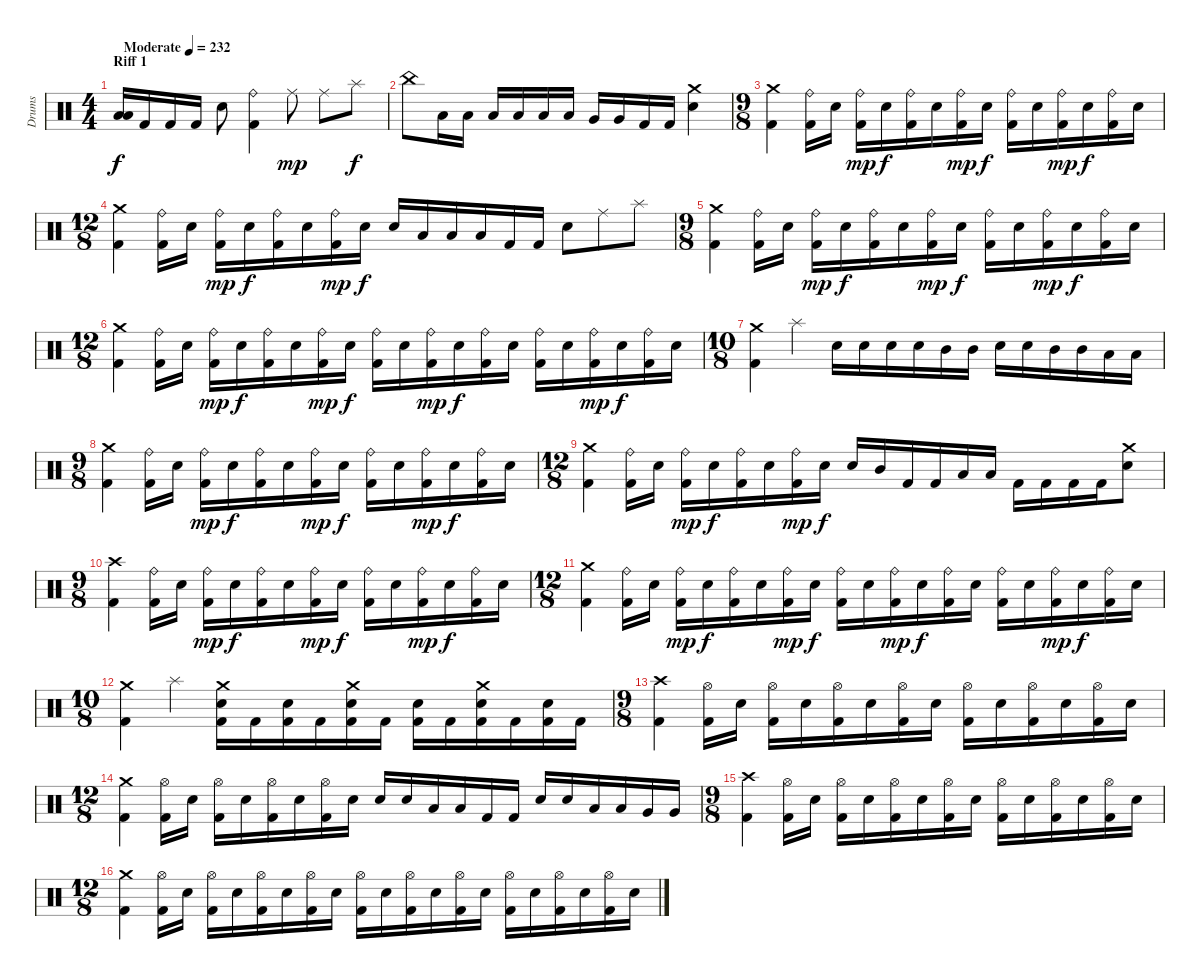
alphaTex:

\track ("Drums" "Drums") {instrument percussion}
\staff {score}
\articulation defaults
\ts (4 4)
\section ("" "Riff 1")
\tempo (232 "Moderate")
\clef neutral
\ks c
("Low Tom (hit)" "Low Floor Tom (hit)").16{dy f} "Kick (hit) 2".16 "Kick (hit) 2".16 "Kick (hit) 2".16 "Electric Snare (hit)".8 ("Kick (hit) 2" "Ride (bell)").4 "Ride (middle)".8{dy mp} "Ride (middle)".8 "Splash (hit)".8{dy f} |
"China (hit)".8 "Low Tom (hit)".16 "Low Tom (hit)".16 "Low Tom (hit)".16 "Low Tom (hit)".16 "Low Tom (hit)".16 "Low Tom (hit)".16 "Very Low Tom (hit)".16 "Very Low Tom (hit)".16 "Kick (hit) 2".16 "Kick (hit) 2".16 ("Electric Snare (hit)" "Crash medium (hit)").4 |
\ts (9 8)
("Crash medium (hit)" "Kick (hit) 2").4 ("Ride (bell)" "Kick (hit) 2").16 "Electric Snare (hit)".16 ("Ride (bell)" "Kick (hit) 2").16{dy mp} "Electric Snare (hit)".16{dy f} ("Ride (bell)" "Kick (hit) 2").16 "Electric Snare (hit)".16 ("Ride (bell)" "Kick (hit) 2").16{dy mp} "Electric Snare (hit)".16{dy f} ("Kick (hit) 2" "Ride (bell)").16 "Electric Snare (hit)".16 ("Kick (hit) 2" "Ride (bell)").16{dy mp} "Electric Snare (hit)".16{dy f} ("Kick (hit) 2" "Ride (bell)").16 "Electric Snare (hit)".16 |
\ts (12 8)
("Crash medium (hit)" "Kick (hit) 2").4 ("Ride (bell)" "Kick (hit) 2").16 "Electric Snare (hit)".16 ("Ride (bell)" "Kick (hit) 2").16{dy mp} "Electric Snare (hit)".16{dy f} ("Ride (bell)" "Kick (hit) 2").16 "Electric Snare (hit)".16 ("Ride (bell)" "Kick (hit) 2").16{dy mp} "Electric Snare (hit)".16{dy f} "Electric Snare (hit)".16 "Low Tom (hit)".16 "Low Tom (hit)".16 "Low Tom (hit)".16 "Kick (hit) 2".16 "Kick (hit) 2".16 "Electric Snare (hit)".8 "Ride (middle)".8 "Splash (hit)".8 |
\ts (9 8)
("Crash medium (hit)" "Kick (hit) 2").4 ("Ride (bell)" "Kick (hit) 2").16 "Electric Snare (hit)".16 ("Ride (bell)" "Kick (hit) 2").16{dy mp} "Electric Snare (hit)".16{dy f} ("Ride (bell)" "Kick (hit) 2").16 "Electric Snare (hit)".16 ("Ride (bell)" "Kick (hit) 2").16{dy mp} "Electric Snare (hit)".16{dy f} ("Kick (hit) 2" "Ride (bell)").16 "Electric Snare (hit)".16 ("Kick (hit) 2" "Ride (bell)").16{dy mp} "Electric Snare (hit)".16{dy f} ("Kick (hit) 2" "Ride (bell)").16 "Electric Snare (hit)".16 |
\ts (12 8)
("Crash medium (hit)" "Kick (hit) 2").4 ("Ride (bell)" "Kick (hit) 2").16 "Electric Snare (hit)".16 ("Ride (bell)" "Kick (hit) 2").16{dy mp} "Electric Snare (hit)".16{dy f} ("Ride (bell)" "Kick (hit) 2").16 "Electric Snare (hit)".16 ("Ride (bell)" "Kick (hit) 2").16{dy mp} "Electric Snare (hit)".16{dy f} ("Kick (hit) 2" "Ride (bell)").16 "Electric Snare (hit)".16 ("Kick (hit) 2" "Ride (bell)").16{dy mp} "Electric Snare (hit)".16{dy f} ("Kick (hit) 2" "Ride (bell)").16 "Electric Snare (hit)".16 ("Kick (hit) 2" "Ride (bell)").16 "Electric Snare (hit)".16 ("Kick (hit) 2" "Ride (bell)").16{dy mp} "Electric Snare (hit)".16{dy f} ("Kick (hit) 2" "Ride (bell)").16 "Electric Snare (hit)".16 |
\ts (10 8)
("Kick (hit) 2" "Crash medium (hit)").4 "Splash (hit)".4 "Electric Snare (hit)".16 "Electric Snare (hit)".16 "Electric Snare (hit)".16 "Electric Snare (hit)".16 "Mid Tom (hit)".16 "Mid Tom (hit)".16 "Electric Snare (hit)".16 "Electric Snare (hit)".16 "Mid Tom (hit)".16 "Mid Tom (hit)".16 "Low Tom (hit)".16 "Low Tom (hit)".16 |
\ts (9 8)
("Crash medium (hit)" "Kick (hit) 2").4 ("Ride (bell)" "Kick (hit) 2").16 "Electric Snare (hit)".16 ("Ride (bell)" "Kick (hit) 2").16{dy mp} "Electric Snare (hit)".16{dy f} ("Ride (bell)" "Kick (hit) 2").16 "Electric Snare (hit)".16 ("Ride (bell)" "Kick (hit) 2").16{dy mp} "Electric Snare (hit)".16{dy f} ("Kick (hit) 2" "Ride (bell)").16 "Electric Snare (hit)".16 ("Kick (hit) 2" "Ride (bell)").16{dy mp} "Electric Snare (hit)".16{dy f} ("Kick (hit) 2" "Ride (bell)").16 "Electric Snare (hit)".16 |
\ts (12 8)
("Crash medium (hit)" "Kick (hit) 2").4 ("Ride (bell)" "Kick (hit) 2").16 "Electric Snare (hit)".16 ("Ride (bell)" "Kick (hit) 2").16{dy mp} "Electric Snare (hit)".16{dy f} ("Ride (bell)" "Kick (hit) 2").16 "Electric Snare (hit)".16 ("Ride (bell)" "Kick (hit) 2").16{dy mp} "Electric Snare (hit)".16{dy f} "Electric Snare (hit)".16 "Mid Tom (hit)".16 "Kick (hit) 2".16 "Kick (hit) 2".16 "Low Tom (hit)".16 "Low Tom (hit)".16 "Kick (hit) 2".16 "Kick (hit) 2".16 "Kick (hit) 2".16 "Kick (hit) 2".16 ("Electric Snare (hit)" "Crash medium (hit)").8 |
\ts (9 8)
("Crash high (hit)" "Kick (hit) 2").4 ("Ride (bell)" "Kick (hit) 2").16 "Electric Snare (hit)".16 ("Ride (bell)" "Kick (hit) 2").16{dy mp} "Electric Snare (hit)".16{dy f} ("Ride (bell)" "Kick (hit) 2").16 "Electric Snare (hit)".16 ("Ride (bell)" "Kick (hit) 2").16{dy mp} "Electric Snare (hit)".16{dy f} ("Kick (hit) 2" "Ride (bell)").16 "Electric Snare (hit)".16 ("Kick (hit) 2" "Ride (bell)").16{dy mp} "Electric Snare (hit)".16{dy f} ("Kick (hit) 2" "Ride (bell)").16 "Electric Snare (hit)".16 |
\ts (12 8)
("Crash medium (hit)" "Kick (hit) 2").4 ("Ride (bell)" "Kick (hit) 2").16 "Electric Snare (hit)".16 ("Ride (bell)" "Kick (hit) 2").16{dy mp} "Electric Snare (hit)".16{dy f} ("Ride (bell)" "Kick (hit) 2").16 "Electric Snare (hit)".16 ("Ride (bell)" "Kick (hit) 2").16{dy mp} "Electric Snare (hit)".16{dy f} ("Kick (hit) 2" "Ride (bell)").16 "Electric Snare (hit)".16 ("Kick (hit) 2" "Ride (bell)").16{dy mp} "Electric Snare (hit)".16{dy f} ("Kick (hit) 2" "Ride (bell)").16 "Electric Snare (hit)".16 ("Kick (hit) 2" "Ride (bell)").16 "Electric Snare (hit)".16 ("Kick (hit) 2" "Ride (bell)").16{dy mp} "Electric Snare (hit)".16{dy f} ("Kick (hit) 2" "Ride (bell)").16 "Electric Snare (hit)".16 |
\ts (10 8)
("Kick (hit) 2" "Crash medium (hit)").4 "Splash (hit)".4 ("Electric Snare (hit)" "Crash medium (hit)" "Kick (hit) 2").16 "Kick (hit) 2".16 ("Electric Snare (hit)" "Kick (hit) 2").16 "Kick (hit) 2".16 ("Electric Snare (hit)" "Crash medium (hit)" "Kick (hit) 2").16 "Kick (hit) 2".16 ("Electric Snare (hit)" "Kick (hit) 2").16 "Kick (hit) 2".16 ("Electric Snare (hit)" "Crash medium (hit)" "Kick (hit) 2").16 "Kick (hit) 2".16 ("Electric Snare (hit)" "Kick (hit) 2").16 "Kick (hit) 2".16 |
\ts (9 8)
("Crash high (hit)" "Kick (hit) 2").4 ("Hi-Hat (open)" "Kick (hit) 2").16 "Electric Snare (hit)".16 ("Hi-Hat (open)" "Kick (hit) 2").16 "Electric Snare (hit)".16 ("Hi-Hat (open)" "Kick (hit) 2").16 "Electric Snare (hit)".16 ("Hi-Hat (open)" "Kick (hit) 2").16 "Electric Snare (hit)".16 ("Kick (hit) 2" "Hi-Hat (open)").16 "Electric Snare (hit)".16 ("Kick (hit) 2" "Hi-Hat (open)").16 "Electric Snare (hit)".16 ("Kick (hit) 2" "Hi-Hat (open)").16 "Electric Snare (hit)".16 |
\ts (12 8)
("Crash medium (hit)" "Kick (hit) 2").4 ("Hi-Hat (open)" "Kick (hit) 2").16 "Electric Snare (hit)".16 ("Hi-Hat (open)" "Kick (hit) 2").16 "Electric Snare (hit)".16 ("Hi-Hat (open)" "Kick (hit) 2").16 "Electric Snare (hit)".16 ("Hi-Hat (open)" "Kick (hit) 2").16 "Electric Snare (hit)".16 "Electric Snare (hit)".16 "Electric Snare (hit)".16 "Low Tom (hit)".16 "Low Tom (hit)".16 "Kick (hit) 2".16 "Kick (hit) 2".16 "Electric Snare (hit)".16 "Electric Snare (hit)".16 "Low Tom (hit)".16 "Low Tom (hit)".16 "Very Low Tom (hit)".16 "Very Low Tom (hit)".16 |
\ts (9 8)
("Crash high (hit)" "Kick (hit) 2").4 ("Hi-Hat (open)" "Kick (hit) 2").16 "Electric Snare (hit)".16 ("Hi-Hat (open)" "Kick (hit) 2").16 "Electric Snare (hit)".16 ("Hi-Hat (open)" "Kick (hit) 2").16 "Electric Snare (hit)".16 ("Hi-Hat (open)" "Kick (hit) 2").16 "Electric Snare (hit)".16 ("Kick (hit) 2" "Hi-Hat (open)").16 "Electric Snare (hit)".16 ("Kick (hit) 2" "Hi-Hat (open)").16 "Electric Snare (hit)".16 ("Kick (hit) 2" "Hi-Hat (open)").16 "Electric Snare (hit)".16 |
\ts (12 8)
("Crash medium (hit)" "Kick (hit) 2").4 ("Hi-Hat (open)" "Kick (hit) 2").16 "Electric Snare (hit)".16 ("Hi-Hat (open)" "Kick (hit) 2").16 "Electric Snare (hit)".16 ("Hi-Hat (open)" "Kick (hit) 2").16 "Electric Snare (hit)".16 ("Hi-Hat (open)" "Kick (hit) 2").16 "Electric Snare (hit)".16 ("Kick (hit) 2" "Hi-Hat (open)").16 "Electric Snare (hit)".16 ("Kick (hit) 2" "Hi-Hat (open)").16 "Electric Snare (hit)".16 ("Kick (hit) 2" "Hi-Hat (open)").16 "Electric Snare (hit)".16 ("Kick (hit) 2" "Hi-Hat (open)").16 "Electric Snare (hit)".16 ("Kick (hit) 2" "Hi-Hat (open)").16 "Electric Snare (hit)".16 ("Kick (hit) 2" "Hi-Hat (open)").16 "Electric Snare (hit)".16
